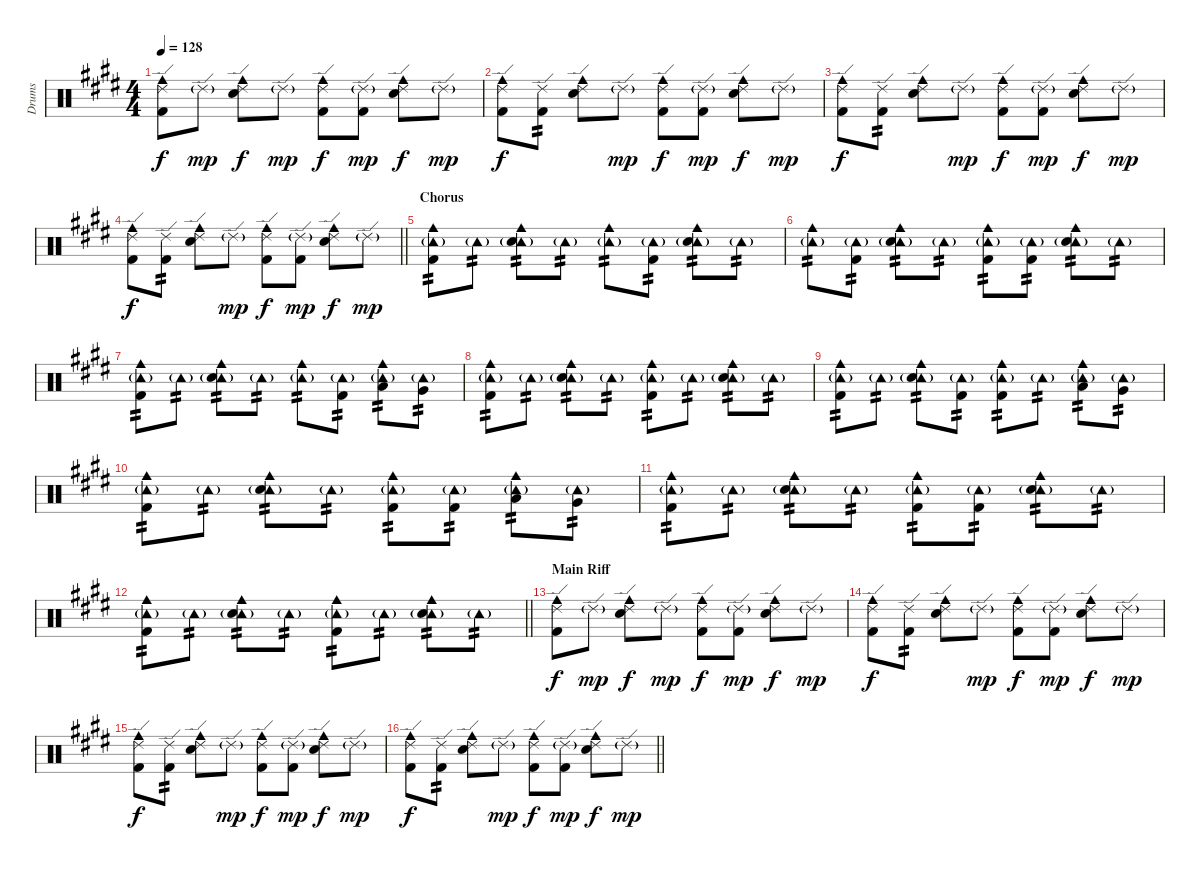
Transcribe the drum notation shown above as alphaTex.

\track ("Drums" "Drums") {instrument percussion}
\staff {score}
\articulation defaults
\ts (4 4)
\tempo 128
\clef neutral
\ks c#minor
("Cowbell medium (hit)" "Ride (edge) 2" "Kick (hit) 2").8{dy f} "Ride (edge) 2"{g}.8{dy mp} ("Cowbell medium (hit)" "Ride (edge) 2" "Snare (hit) 2").8{dy f} "Ride (edge) 2"{g}.8{dy mp} ("Cowbell medium (hit)" "Ride (edge) 2" "Kick (hit) 2").8{dy f} ("Ride (edge) 2"{g} "Kick (hit) 2").8{dy mp} ("Cowbell medium (hit)" "Ride (edge) 2" "Snare (hit) 2").8{dy f} "Ride (edge) 2"{g}.8{dy mp} |
("Cowbell medium (hit)" "Ride (edge) 2" "Kick (hit) 2").8{dy f} ("Ride (edge) 2" "Kick (hit) 2").8{tp 2} ("Cowbell medium (hit)" "Ride (edge) 2" "Snare (hit) 2").8 "Ride (edge) 2"{g}.8{dy mp} ("Cowbell medium (hit)" "Ride (edge) 2" "Kick (hit) 2").8{dy f} ("Ride (edge) 2"{g} "Kick (hit) 2").8{dy mp} ("Cowbell medium (hit)" "Ride (edge) 2" "Snare (hit) 2").8{dy f} "Ride (edge) 2"{g}.8{dy mp} |
("Cowbell medium (hit)" "Ride (edge) 2" "Kick (hit) 2").8{dy f} ("Ride (edge) 2" "Kick (hit) 2").8{tp 2} ("Cowbell medium (hit)" "Ride (edge) 2" "Snare (hit) 2").8 "Ride (edge) 2"{g}.8{dy mp} ("Cowbell medium (hit)" "Ride (edge) 2" "Kick (hit) 2").8{dy f} ("Ride (edge) 2"{g} "Kick (hit) 2").8{dy mp} ("Cowbell medium (hit)" "Ride (edge) 2" "Snare (hit) 2").8{dy f} "Ride (edge) 2"{g}.8{dy mp} |
\barLineRight lightlight
("Cowbell medium (hit)" "Ride (edge) 2" "Kick (hit) 2").8{dy f} ("Ride (edge) 2" "Kick (hit) 2").8{tp 2} ("Cowbell medium (hit)" "Ride (edge) 2" "Snare (hit) 2").8 "Ride (edge) 2"{g}.8{dy mp} ("Cowbell medium (hit)" "Ride (edge) 2" "Kick (hit) 2").8{dy f} ("Ride (edge) 2"{g} "Kick (hit) 2").8{dy mp} ("Cowbell medium (hit)" "Ride (edge) 2" "Snare (hit) 2").8{dy f} "Ride (edge) 2"{g}.8{dy mp} |
\section ("" "Chorus")
("Cowbell medium (hit)" "Tambourine (hit)"{g} "Kick (hit) 2").8{tp 2} "Tambourine (hit)"{g}.8{tp 2} ("Cowbell medium (hit)" "Tambourine (hit)"{g} "Snare (hit) 2").8{tp 2} "Tambourine (hit)"{g}.8{tp 2} ("Cowbell medium (hit)" "Tambourine (hit)"{g}).8{tp 2} ("Tambourine (hit)"{g} "Kick (hit) 2").8{tp 2} ("Cowbell medium (hit)" "Tambourine (hit)"{g} "Snare (hit) 2").8{tp 2} "Tambourine (hit)"{g}.8{tp 2} |
\ks e
("Cowbell medium (hit)" "Tambourine (hit)"{g}).8{tp 2} ("Tambourine (hit)"{g} "Kick (hit) 2").8{tp 2} ("Cowbell medium (hit)" "Tambourine (hit)"{g} "Snare (hit) 2").8{tp 2} "Tambourine (hit)"{g}.8{tp 2} ("Cowbell medium (hit)" "Tambourine (hit)"{g} "Kick (hit) 2").8{tp 2} ("Tambourine (hit)"{g} "Kick (hit) 2").8{tp 2} ("Cowbell medium (hit)" "Tambourine (hit)"{g} "Snare (hit) 2").8{tp 2} "Tambourine (hit)"{g}.8{tp 2} |
\ks c#minor
("Cowbell medium (hit)" "Tambourine (hit)"{g} "Kick (hit) 2").8{tp 2} "Tambourine (hit)"{g}.8{tp 2} ("Cowbell medium (hit)" "Tambourine (hit)"{g} "Snare (hit) 2").8{tp 2} "Tambourine (hit)"{g}.8{tp 2} ("Cowbell medium (hit)" "Tambourine (hit)"{g}).8{tp 2} ("Tambourine (hit)"{g} "Kick (hit) 2").8{tp 2} ("Cowbell medium (hit)" "Tambourine (hit)"{g} "Low Tom (hit)").8{tp 2} ("Tambourine (hit)"{g} "Very Low Tom (hit)").8{tp 2} |
("Cowbell medium (hit)" "Tambourine (hit)"{g} "Kick (hit) 2").8{tp 2} "Tambourine (hit)"{g}.8{tp 2} ("Cowbell medium (hit)" "Tambourine (hit)"{g} "Snare (hit) 2").8{tp 2} "Tambourine (hit)"{g}.8{tp 2} ("Cowbell medium (hit)" "Tambourine (hit)"{g} "Kick (hit) 2").8{tp 2} "Tambourine (hit)"{g}.8{tp 2} ("Cowbell medium (hit)" "Tambourine (hit)"{g} "Snare (hit) 2").8{tp 2} "Tambourine (hit)"{g}.8{tp 2} |
("Cowbell medium (hit)" "Tambourine (hit)"{g} "Kick (hit) 2").8{tp 2} "Tambourine (hit)"{g}.8{tp 2} ("Cowbell medium (hit)" "Tambourine (hit)"{g} "Snare (hit) 2").8{tp 2} ("Tambourine (hit)"{g} "Kick (hit) 2").8{tp 2} ("Cowbell medium (hit)" "Tambourine (hit)"{g} "Kick (hit) 2").8{tp 2} "Tambourine (hit)"{g}.8{tp 2} ("Cowbell medium (hit)" "Tambourine (hit)"{g} "Low Tom (hit)").8{tp 2} ("Tambourine (hit)"{g} "Very Low Tom (hit)").8{tp 2} |
\ks e
("Cowbell medium (hit)" "Tambourine (hit)"{g} "Kick (hit) 2").8{tp 2} "Tambourine (hit)"{g}.8{tp 2} ("Cowbell medium (hit)" "Tambourine (hit)"{g} "Snare (hit) 2").8{tp 2} "Tambourine (hit)"{g}.8{tp 2} ("Cowbell medium (hit)" "Tambourine (hit)"{g} "Kick (hit) 2").8{tp 2} ("Tambourine (hit)"{g} "Kick (hit) 2").8{tp 2} ("Cowbell medium (hit)" "Tambourine (hit)"{g} "Low Tom (hit)").8{tp 2} ("Tambourine (hit)"{g} "Very Low Tom (hit)").8{tp 2} |
\ks c#minor
("Cowbell medium (hit)" "Tambourine (hit)"{g} "Kick (hit) 2").8{tp 2} "Tambourine (hit)"{g}.8{tp 2} ("Cowbell medium (hit)" "Tambourine (hit)"{g} "Snare (hit) 2").8{tp 2} "Tambourine (hit)"{g}.8{tp 2} ("Cowbell medium (hit)" "Tambourine (hit)"{g} "Kick (hit) 2").8{tp 2} ("Tambourine (hit)"{g} "Kick (hit) 2").8{tp 2} ("Cowbell medium (hit)" "Tambourine (hit)"{g} "Snare (hit) 2").8{tp 2} "Tambourine (hit)"{g}.8{tp 2} |
\barLineRight lightlight
("Cowbell medium (hit)" "Tambourine (hit)"{g} "Kick (hit) 2").8{tp 2} "Tambourine (hit)"{g}.8{tp 2} ("Cowbell medium (hit)" "Tambourine (hit)"{g} "Snare (hit) 2").8{tp 2} "Tambourine (hit)"{g}.8{tp 2} ("Cowbell medium (hit)" "Tambourine (hit)"{g} "Kick (hit) 2").8{tp 2} "Tambourine (hit)"{g}.8{tp 2} ("Cowbell medium (hit)" "Tambourine (hit)"{g} "Snare (hit) 2").8{tp 2} "Tambourine (hit)"{g}.8{tp 2} |
\section ("" "Main Riff")
("Cowbell medium (hit)" "Ride (edge) 2" "Kick (hit) 2").8{dy f} "Ride (edge) 2"{g}.8{dy mp} ("Cowbell medium (hit)" "Ride (edge) 2" "Snare (hit) 2").8{dy f} "Ride (edge) 2"{g}.8{dy mp} ("Cowbell medium (hit)" "Ride (edge) 2" "Kick (hit) 2").8{dy f} ("Ride (edge) 2"{g} "Kick (hit) 2").8{dy mp} ("Cowbell medium (hit)" "Ride (edge) 2" "Snare (hit) 2").8{dy f} "Ride (edge) 2"{g}.8{dy mp} |
("Cowbell medium (hit)" "Ride (edge) 2" "Kick (hit) 2").8{dy f} ("Ride (edge) 2" "Kick (hit) 2").8{tp 2} ("Cowbell medium (hit)" "Ride (edge) 2" "Snare (hit) 2").8 "Ride (edge) 2"{g}.8{dy mp} ("Cowbell medium (hit)" "Ride (edge) 2" "Kick (hit) 2").8{dy f} ("Ride (edge) 2"{g} "Kick (hit) 2").8{dy mp} ("Cowbell medium (hit)" "Ride (edge) 2" "Snare (hit) 2").8{dy f} "Ride (edge) 2"{g}.8{dy mp} |
("Cowbell medium (hit)" "Ride (edge) 2" "Kick (hit) 2").8{dy f} ("Ride (edge) 2" "Kick (hit) 2").8{tp 2} ("Cowbell medium (hit)" "Ride (edge) 2" "Snare (hit) 2").8 "Ride (edge) 2"{g}.8{dy mp} ("Cowbell medium (hit)" "Ride (edge) 2" "Kick (hit) 2").8{dy f} ("Ride (edge) 2"{g} "Kick (hit) 2").8{dy mp} ("Cowbell medium (hit)" "Ride (edge) 2" "Snare (hit) 2").8{dy f} "Ride (edge) 2"{g}.8{dy mp} |
\barLineRight lightlight
("Cowbell medium (hit)" "Ride (edge) 2" "Kick (hit) 2").8{dy f} ("Ride (edge) 2" "Kick (hit) 2").8{tp 2} ("Cowbell medium (hit)" "Ride (edge) 2" "Snare (hit) 2").8 "Ride (edge) 2"{g}.8{dy mp} ("Cowbell medium (hit)" "Ride (edge) 2" "Kick (hit) 2").8{dy f} ("Ride (edge) 2"{g} "Kick (hit) 2").8{dy mp} ("Cowbell medium (hit)" "Ride (edge) 2" "Snare (hit) 2").8{dy f} "Ride (edge) 2"{g}.8{dy mp}
